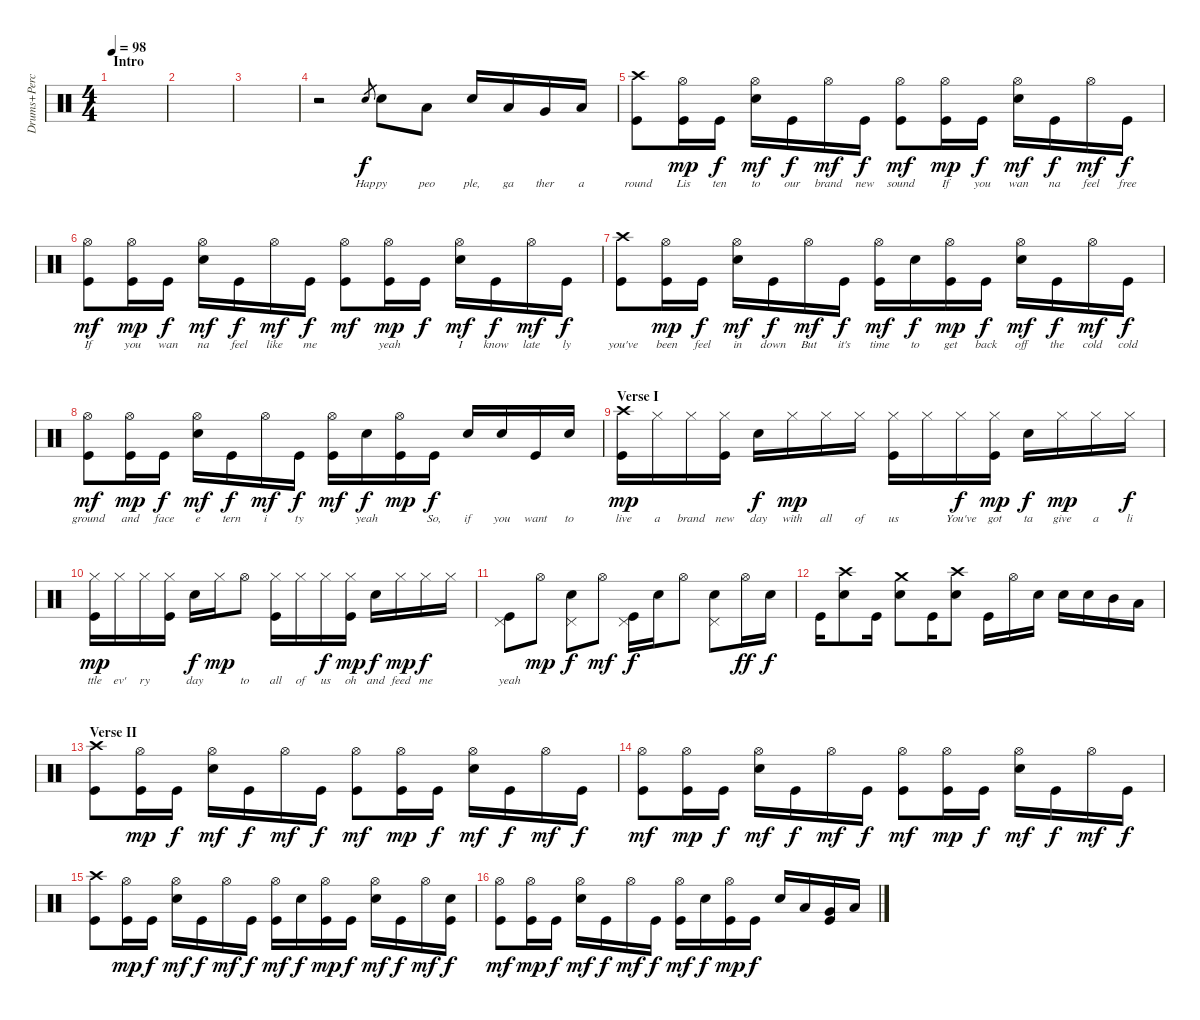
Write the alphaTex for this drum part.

\track ("Drums+Percussion" "Drums+Perc") {instrument percussion}
\staff {score}
\articulation defaults
\ts (4 4)
\section ("" "Intro")
\tempo 98
\clef neutral
\ks c
|
|
|
r.2 "Snare (hit) 2".8{lyrics (0 "Hap") lyrics (1 "") lyrics (2 "") lyrics (3 "") lyrics (4 "") gr} "Snare (hit) 2".8{lyrics (0 "py") lyrics (1 "") lyrics (2 "") lyrics (3 "") lyrics (4 "") dy f} "Low Tom (hit)".8{lyrics (0 "peo") lyrics (1 "") lyrics (2 "") lyrics (3 "") lyrics (4 "")} "Snare (hit) 2".16{lyrics (0 "ple,") lyrics (1 "") lyrics (2 "") lyrics (3 "") lyrics (4 "")} "Low Tom (hit)".16{lyrics (0 "ga") lyrics (1 "") lyrics (2 "") lyrics (3 "") lyrics (4 "")} "Very Low Tom (hit)".16{lyrics (0 "ther") lyrics (1 "") lyrics (2 "") lyrics (3 "") lyrics (4 "")} "Low Floor Tom (hit)".16{lyrics (0 "a") lyrics (1 "") lyrics (2 "") lyrics (3 "") lyrics (4 "")} |
("Kick (hit)" "Crash high (hit)").8{lyrics (0 "round") lyrics (1 "") lyrics (2 "") lyrics (3 "") lyrics (4 "")} ("Kick (hit)" "Hi-Hat (open)").16{lyrics (0 "Lis") lyrics (1 "") lyrics (2 "") lyrics (3 "") lyrics (4 "") dy mp} "Kick (hit)".16{lyrics (0 "ten") lyrics (1 "") lyrics (2 "") lyrics (3 "") lyrics (4 "") dy f} ("Snare (hit) 2" "Hi-Hat (open)").16{lyrics (0 "to") lyrics (1 "") lyrics (2 "") lyrics (3 "") lyrics (4 "") dy mf} "Kick (hit)".16{lyrics (0 "our") lyrics (1 "") lyrics (2 "") lyrics (3 "") lyrics (4 "") dy f} "Hi-Hat (open)".16{lyrics (0 "brand") lyrics (1 "") lyrics (2 "") lyrics (3 "") lyrics (4 "") dy mf} "Kick (hit)".16{lyrics (0 "new") lyrics (1 "") lyrics (2 "") lyrics (3 "") lyrics (4 "") dy f} ("Kick (hit)" "Hi-Hat (open)").8{lyrics (0 "sound") lyrics (1 "") lyrics (2 "") lyrics (3 "") lyrics (4 "") dy mf} ("Kick (hit)" "Hi-Hat (open)").16{lyrics (0 "If") lyrics (1 "") lyrics (2 "") lyrics (3 "") lyrics (4 "") dy mp} "Kick (hit)".16{lyrics (0 "you") lyrics (1 "") lyrics (2 "") lyrics (3 "") lyrics (4 "") dy f} ("Snare (hit) 2" "Hi-Hat (open)").16{lyrics (0 "wan") lyrics (1 "") lyrics (2 "") lyrics (3 "") lyrics (4 "") dy mf} "Kick (hit)".16{lyrics (0 "na") lyrics (1 "") lyrics (2 "") lyrics (3 "") lyrics (4 "") dy f} "Hi-Hat (open)".16{lyrics (0 "feel") lyrics (1 "") lyrics (2 "") lyrics (3 "") lyrics (4 "") dy mf} "Kick (hit)".16{lyrics (0 "free") lyrics (1 "") lyrics (2 "") lyrics (3 "") lyrics (4 "") dy f} |
("Kick (hit)" "Hi-Hat (open)").8{lyrics (0 "If") lyrics (1 "") lyrics (2 "") lyrics (3 "") lyrics (4 "") dy mf} ("Kick (hit)" "Hi-Hat (open)").16{lyrics (0 "you") lyrics (1 "") lyrics (2 "") lyrics (3 "") lyrics (4 "") dy mp} "Kick (hit)".16{lyrics (0 "wan") lyrics (1 "") lyrics (2 "") lyrics (3 "") lyrics (4 "") dy f} ("Snare (hit) 2" "Hi-Hat (open)").16{lyrics (0 "na") lyrics (1 "") lyrics (2 "") lyrics (3 "") lyrics (4 "") dy mf} "Kick (hit)".16{lyrics (0 "feel") lyrics (1 "") lyrics (2 "") lyrics (3 "") lyrics (4 "") dy f} "Hi-Hat (open)".16{lyrics (0 "like") lyrics (1 "") lyrics (2 "") lyrics (3 "") lyrics (4 "") dy mf} "Kick (hit)".16{lyrics (0 "me") lyrics (1 "") lyrics (2 "") lyrics (3 "") lyrics (4 "") dy f} ("Kick (hit)" "Hi-Hat (open)").8{lyrics (0 "") lyrics (1 "") lyrics (2 "") lyrics (3 "") lyrics (4 "") dy mf} ("Kick (hit)" "Hi-Hat (open)").16{lyrics (0 "yeah") lyrics (1 "") lyrics (2 "") lyrics (3 "") lyrics (4 "") dy mp} "Kick (hit)".16{lyrics (0 "") lyrics (1 "") lyrics (2 "") lyrics (3 "") lyrics (4 "") dy f} ("Snare (hit) 2" "Hi-Hat (open)").16{lyrics (0 "I") lyrics (1 "") lyrics (2 "") lyrics (3 "") lyrics (4 "") dy mf} "Kick (hit)".16{lyrics (0 "know") lyrics (1 "") lyrics (2 "") lyrics (3 "") lyrics (4 "") dy f} "Hi-Hat (open)".16{lyrics (0 "late") lyrics (1 "") lyrics (2 "") lyrics (3 "") lyrics (4 "") dy mf} "Kick (hit)".16{lyrics (0 "ly") lyrics (1 "") lyrics (2 "") lyrics (3 "") lyrics (4 "") dy f} |
("Kick (hit)" "Crash high (hit)").8{lyrics (0 "you've") lyrics (1 "") lyrics (2 "") lyrics (3 "") lyrics (4 "")} ("Kick (hit)" "Hi-Hat (open)").16{lyrics (0 "been") lyrics (1 "") lyrics (2 "") lyrics (3 "") lyrics (4 "") dy mp} "Kick (hit)".16{lyrics (0 "feel") lyrics (1 "") lyrics (2 "") lyrics (3 "") lyrics (4 "") dy f} ("Snare (hit) 2" "Hi-Hat (open)").16{lyrics (0 "in") lyrics (1 "") lyrics (2 "") lyrics (3 "") lyrics (4 "") dy mf} "Kick (hit)".16{lyrics (0 "down") lyrics (1 "") lyrics (2 "") lyrics (3 "") lyrics (4 "") dy f} "Hi-Hat (open)".16{lyrics (0 "But") lyrics (1 "") lyrics (2 "") lyrics (3 "") lyrics (4 "") dy mf} "Kick (hit)".16{lyrics (0 "it's") lyrics (1 "") lyrics (2 "") lyrics (3 "") lyrics (4 "") dy f} ("Kick (hit)" "Hi-Hat (open)").16{lyrics (0 "time") lyrics (1 "") lyrics (2 "") lyrics (3 "") lyrics (4 "") dy mf} "Snare (hit) 2".16{lyrics (0 "to") lyrics (1 "") lyrics (2 "") lyrics (3 "") lyrics (4 "") dy f} ("Kick (hit)" "Hi-Hat (open)").16{lyrics (0 "get") lyrics (1 "") lyrics (2 "") lyrics (3 "") lyrics (4 "") dy mp} "Kick (hit)".16{lyrics (0 "back") lyrics (1 "") lyrics (2 "") lyrics (3 "") lyrics (4 "") dy f} ("Snare (hit) 2" "Hi-Hat (open)").16{lyrics (0 "off") lyrics (1 "") lyrics (2 "") lyrics (3 "") lyrics (4 "") dy mf} "Kick (hit)".16{lyrics (0 "the") lyrics (1 "") lyrics (2 "") lyrics (3 "") lyrics (4 "") dy f} "Hi-Hat (open)".16{lyrics (0 "cold") lyrics (1 "") lyrics (2 "") lyrics (3 "") lyrics (4 "") dy mf} "Kick (hit)".16{lyrics (0 "cold") lyrics (1 "") lyrics (2 "") lyrics (3 "") lyrics (4 "") dy f} |
("Kick (hit)" "Hi-Hat (open)").8{lyrics (0 "ground") lyrics (1 "") lyrics (2 "") lyrics (3 "") lyrics (4 "") dy mf} ("Kick (hit)" "Hi-Hat (open)").16{lyrics (0 "and") lyrics (1 "") lyrics (2 "") lyrics (3 "") lyrics (4 "") dy mp} "Kick (hit)".16{lyrics (0 "face") lyrics (1 "") lyrics (2 "") lyrics (3 "") lyrics (4 "") dy f} ("Snare (hit) 2" "Hi-Hat (open)").16{lyrics (0 "e") lyrics (1 "") lyrics (2 "") lyrics (3 "") lyrics (4 "") dy mf} "Kick (hit)".16{lyrics (0 "tern") lyrics (1 "") lyrics (2 "") lyrics (3 "") lyrics (4 "") dy f} "Hi-Hat (open)".16{lyrics (0 "i") lyrics (1 "") lyrics (2 "") lyrics (3 "") lyrics (4 "") dy mf} "Kick (hit)".16{lyrics (0 "ty") lyrics (1 "") lyrics (2 "") lyrics (3 "") lyrics (4 "") dy f} ("Kick (hit)" "Hi-Hat (open)").16{lyrics (0 "") lyrics (1 "") lyrics (2 "") lyrics (3 "") lyrics (4 "") dy mf} "Snare (hit) 2".16{lyrics (0 "yeah") lyrics (1 "") lyrics (2 "") lyrics (3 "") lyrics (4 "") dy f} ("Kick (hit)" "Hi-Hat (open)").16{lyrics (0 "") lyrics (1 "") lyrics (2 "") lyrics (3 "") lyrics (4 "") dy mp} "Kick (hit)".16{lyrics (0 "So,") lyrics (1 "") lyrics (2 "") lyrics (3 "") lyrics (4 "") dy f} "Snare (hit) 2".16{lyrics (0 "if") lyrics (1 "") lyrics (2 "") lyrics (3 "") lyrics (4 "")} "Snare (hit) 2".16{lyrics (0 "you") lyrics (1 "") lyrics (2 "") lyrics (3 "") lyrics (4 "")} "Kick (hit)".16{lyrics (0 "want") lyrics (1 "") lyrics (2 "") lyrics (3 "") lyrics (4 "")} "Snare (hit) 2".16{lyrics (0 "to") lyrics (1 "") lyrics (2 "") lyrics (3 "") lyrics (4 "")} |
\section ("" "Verse I")
("Kick (hit)" "Crash high (hit)").16{lyrics (0 "live") lyrics (1 "") lyrics (2 "") lyrics (3 "") lyrics (4 "") dy mp} "Hi-Hat (closed)".16{lyrics (0 "a") lyrics (1 "") lyrics (2 "") lyrics (3 "") lyrics (4 "")} "Hi-Hat (closed)".16{lyrics (0 "brand") lyrics (1 "") lyrics (2 "") lyrics (3 "") lyrics (4 "")} ("Kick (hit)" "Hi-Hat (closed)").16{lyrics (0 "new") lyrics (1 "") lyrics (2 "") lyrics (3 "") lyrics (4 "")} "Snare (hit) 2".16{lyrics (0 "day") lyrics (1 "") lyrics (2 "") lyrics (3 "") lyrics (4 "") dy f} "Hi-Hat (closed)".16{lyrics (0 "with") lyrics (1 "") lyrics (2 "") lyrics (3 "") lyrics (4 "") dy mp} "Hi-Hat (closed)".16{lyrics (0 "all") lyrics (1 "") lyrics (2 "") lyrics (3 "") lyrics (4 "")} "Hi-Hat (closed)".16{lyrics (0 "of") lyrics (1 "") lyrics (2 "") lyrics (3 "") lyrics (4 "")} ("Kick (hit)" "Hi-Hat (closed)").16{lyrics (0 "us") lyrics (1 "") lyrics (2 "") lyrics (3 "") lyrics (4 "")} "Hi-Hat (closed)".16{lyrics (0 "") lyrics (1 "") lyrics (2 "") lyrics (3 "") lyrics (4 "")} "Hi-Hat (closed)".16{lyrics (0 "You've") lyrics (1 "") lyrics (2 "") lyrics (3 "") lyrics (4 "") dy f} ("Kick (hit)" "Hi-Hat (closed)").16{lyrics (0 "got") lyrics (1 "") lyrics (2 "") lyrics (3 "") lyrics (4 "") dy mp} "Snare (hit) 2".16{lyrics (0 "ta") lyrics (1 "") lyrics (2 "") lyrics (3 "") lyrics (4 "") dy f} "Hi-Hat (closed)".16{lyrics (0 "give") lyrics (1 "") lyrics (2 "") lyrics (3 "") lyrics (4 "") dy mp} "Hi-Hat (closed)".16{lyrics (0 "a") lyrics (1 "") lyrics (2 "") lyrics (3 "") lyrics (4 "")} "Hi-Hat (closed)".16{lyrics (0 "li") lyrics (1 "") lyrics (2 "") lyrics (3 "") lyrics (4 "") dy f} |
("Kick (hit)" "Hi-Hat (closed)").16{lyrics (0 "ttle") lyrics (1 "") lyrics (2 "") lyrics (3 "") lyrics (4 "") dy mp} "Hi-Hat (closed)".16{lyrics (0 "ev'") lyrics (1 "") lyrics (2 "") lyrics (3 "") lyrics (4 "")} "Hi-Hat (closed)".16{lyrics (0 "ry") lyrics (1 "") lyrics (2 "") lyrics (3 "") lyrics (4 "")} ("Kick (hit)" "Hi-Hat (closed)").16{lyrics (0 "") lyrics (1 "") lyrics (2 "") lyrics (3 "") lyrics (4 "")} "Snare (hit) 2".16{lyrics (0 "day") lyrics (1 "") lyrics (2 "") lyrics (3 "") lyrics (4 "") dy f} "Hi-Hat (closed)".16{lyrics (0 "") lyrics (1 "") lyrics (2 "") lyrics (3 "") lyrics (4 "") dy mp} "Hi-Hat (open)".8{lyrics (0 "to") lyrics (1 "") lyrics (2 "") lyrics (3 "") lyrics (4 "")} ("Kick (hit)" "Hi-Hat (closed)").16{lyrics (0 "all") lyrics (1 "") lyrics (2 "") lyrics (3 "") lyrics (4 "")} "Hi-Hat (closed)".16{lyrics (0 "of") lyrics (1 "") lyrics (2 "") lyrics (3 "") lyrics (4 "")} "Hi-Hat (closed)".16{lyrics (0 "us") lyrics (1 "") lyrics (2 "") lyrics (3 "") lyrics (4 "") dy f} ("Kick (hit)" "Hi-Hat (closed)").16{lyrics (0 "oh") lyrics (1 "") lyrics (2 "") lyrics (3 "") lyrics (4 "") dy mp} "Snare (hit) 2".16{lyrics (0 "and") lyrics (1 "") lyrics (2 "") lyrics (3 "") lyrics (4 "") dy f} "Hi-Hat (closed)".16{lyrics (0 "feed") lyrics (1 "") lyrics (2 "") lyrics (3 "") lyrics (4 "") dy mp} "Hi-Hat (closed)".16{lyrics (0 "me") lyrics (1 "") lyrics (2 "") lyrics (3 "") lyrics (4 "") dy f} "Hi-Hat (closed)".16{lyrics (0 "") lyrics (1 "") lyrics (2 "") lyrics (3 "") lyrics (4 "")} |
("Kick (hit)" "Pedal Hi-Hat (hit)").8{lyrics (0 "yeah") lyrics (1 "") lyrics (2 "") lyrics (3 "") lyrics (4 "")} "Hi-Hat (open)".8{dy mp} ("Snare (hit) 2" "Pedal Hi-Hat (hit)").8{dy f} "Hi-Hat (open)".8{dy mf} ("Kick (hit)" "Pedal Hi-Hat (hit)").16{dy f} "Snare (hit) 2".16 "Hi-Hat (open)".8 ("Snare (hit) 2" "Pedal Hi-Hat (hit)").8 "Hi-Hat (open)".16{dy ff} "Snare (hit) 2".16{dy f} |
"Kick (hit)".16 ("Snare (hit) 2" "Crash high (hit)").8 "Kick (hit)".16 ("Snare (hit) 2" "Crash medium (hit)").8 "Kick (hit)".16 ("Snare (hit) 2" "Crash high (hit)").8 "Kick (hit)".16 "Hi-Hat (open)".16 "Snare (hit) 2".16 "Snare (hit) 2".16 "Snare (hit) 2".16 "Mid Tom (hit)".16 "Low Tom (hit)".16 |
\section ("" "Verse II")
("Kick (hit)" "Crash high (hit)").8 ("Kick (hit)" "Hi-Hat (open)").16{dy mp} "Kick (hit)".16{dy f} ("Snare (hit) 2" "Hi-Hat (open)").16{dy mf} "Kick (hit)".16{dy f} "Hi-Hat (open)".16{dy mf} "Kick (hit)".16{dy f} ("Kick (hit)" "Hi-Hat (open)").8{dy mf} ("Kick (hit)" "Hi-Hat (open)").16{dy mp} "Kick (hit)".16{dy f} ("Snare (hit) 2" "Hi-Hat (open)").16{dy mf} "Kick (hit)".16{dy f} "Hi-Hat (open)".16{dy mf} "Kick (hit)".16{dy f} |
("Kick (hit)" "Hi-Hat (open)").8{dy mf} ("Kick (hit)" "Hi-Hat (open)").16{dy mp} "Kick (hit)".16{dy f} ("Snare (hit) 2" "Hi-Hat (open)").16{dy mf} "Kick (hit)".16{dy f} "Hi-Hat (open)".16{dy mf} "Kick (hit)".16{dy f} ("Kick (hit)" "Hi-Hat (open)").8{dy mf} ("Kick (hit)" "Hi-Hat (open)").16{dy mp} "Kick (hit)".16{dy f} ("Snare (hit) 2" "Hi-Hat (open)").16{dy mf} "Kick (hit)".16{dy f} "Hi-Hat (open)".16{dy mf} "Kick (hit)".16{dy f} |
("Kick (hit)" "Crash high (hit)").8 ("Kick (hit)" "Hi-Hat (open)").16{dy mp} "Kick (hit)".16{dy f} ("Snare (hit) 2" "Hi-Hat (open)").16{dy mf} "Kick (hit)".16{dy f} "Hi-Hat (open)".16{dy mf} "Kick (hit)".16{dy f} ("Kick (hit)" "Hi-Hat (open)").16{dy mf} "Snare (hit) 2".16{dy f} ("Kick (hit)" "Hi-Hat (open)").16{dy mp} "Kick (hit)".16{dy f} ("Snare (hit) 2" "Hi-Hat (open)").16{dy mf} "Kick (hit)".16{dy f} "Hi-Hat (open)".16{dy mf} ("Kick (hit)" "Snare (hit) 2").16{dy f} |
("Kick (hit)" "Hi-Hat (open)").8{dy mf} ("Kick (hit)" "Hi-Hat (open)").16{dy mp} "Kick (hit)".16{dy f} ("Snare (hit) 2" "Hi-Hat (open)").16{dy mf} "Kick (hit)".16{dy f} "Hi-Hat (open)".16{dy mf} "Kick (hit)".16{dy f} ("Kick (hit)" "Hi-Hat (open)").16{dy mf} "Snare (hit) 2".16{dy f} ("Kick (hit)" "Hi-Hat (open)").16{dy mp} "Kick (hit)".16{dy f} "Snare (hit) 2".16 "Low Tom (hit)".16 ("Kick (hit)" "Very Low Tom (hit)").16 "Low Floor Tom (hit)".16
